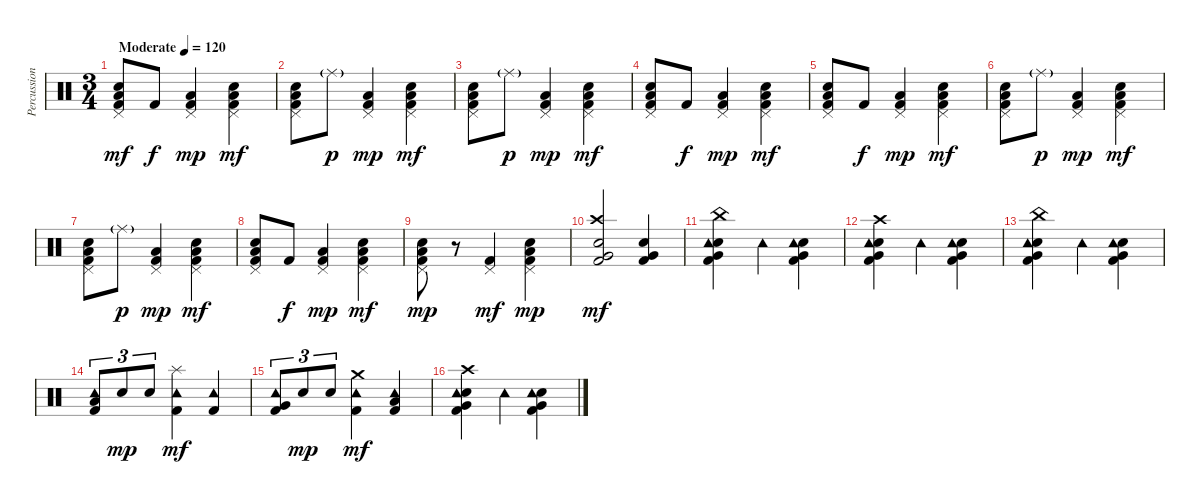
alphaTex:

\track ("Percussion" "Percussion") {instrument percussion}
\staff {score}
\articulation defaults
\ts (3 4)
\tempo (120 "Moderate")
\clef neutral
\ks c
("Snare (hit) 2" "Kick (hit) 2" "Pedal Hi-Hat (hit)" "Low Tom (hit)").8{dy mf} "Kick (hit) 2".8{dy f} ("Kick (hit) 2" "Pedal Hi-Hat (hit)" "Low Floor Tom (hit)").4{dy mp} ("Snare (hit) 2" "Kick (hit) 2" "Pedal Hi-Hat (hit)" "Low Tom (hit)").4{dy mf} |
("Snare (hit) 2" "Kick (hit) 2" "Pedal Hi-Hat (hit)" "Low Tom (hit)").8 "Ride (middle)"{g}.8{dy p} ("Kick (hit) 2" "Pedal Hi-Hat (hit)" "Low Floor Tom (hit)").4{dy mp} ("Snare (hit) 2" "Kick (hit) 2" "Pedal Hi-Hat (hit)" "Low Tom (hit)").4{dy mf} |
("Snare (hit) 2" "Kick (hit) 2" "Pedal Hi-Hat (hit)" "Low Tom (hit)").8 "Ride (middle)"{g}.8{dy p} ("Kick (hit) 2" "Pedal Hi-Hat (hit)" "Low Floor Tom (hit)").4{dy mp} ("Snare (hit) 2" "Kick (hit) 2" "Pedal Hi-Hat (hit)" "Low Tom (hit)").4{dy mf} |
("Snare (hit) 2" "Kick (hit) 2" "Pedal Hi-Hat (hit)" "Low Tom (hit)").8 "Kick (hit) 2".8{dy f} ("Kick (hit) 2" "Pedal Hi-Hat (hit)" "Low Floor Tom (hit)").4{dy mp} ("Snare (hit) 2" "Kick (hit) 2" "Pedal Hi-Hat (hit)" "Low Tom (hit)").4{dy mf} |
("Snare (hit) 2" "Kick (hit) 2" "Pedal Hi-Hat (hit)" "Low Tom (hit)").8 "Kick (hit) 2".8{dy f} ("Kick (hit) 2" "Pedal Hi-Hat (hit)" "Low Floor Tom (hit)").4{dy mp} ("Snare (hit) 2" "Kick (hit) 2" "Pedal Hi-Hat (hit)" "Low Tom (hit)").4{dy mf} |
("Snare (hit) 2" "Kick (hit) 2" "Pedal Hi-Hat (hit)" "Low Tom (hit)").8 "Ride (middle)"{g}.8{dy p} ("Kick (hit) 2" "Pedal Hi-Hat (hit)" "Low Floor Tom (hit)").4{dy mp} ("Snare (hit) 2" "Kick (hit) 2" "Pedal Hi-Hat (hit)" "Low Tom (hit)").4{dy mf} |
("Snare (hit) 2" "Kick (hit) 2" "Pedal Hi-Hat (hit)" "Low Tom (hit)").8 "Ride (middle)"{g}.8{dy p} ("Kick (hit) 2" "Pedal Hi-Hat (hit)" "Low Floor Tom (hit)").4{dy mp} ("Snare (hit) 2" "Kick (hit) 2" "Pedal Hi-Hat (hit)" "Low Tom (hit)").4{dy mf} |
("Snare (hit) 2" "Kick (hit) 2" "Pedal Hi-Hat (hit)" "Low Tom (hit)").8 "Kick (hit) 2".8{dy f} ("Kick (hit) 2" "Pedal Hi-Hat (hit)" "Low Floor Tom (hit)").4{dy mp} ("Snare (hit) 2" "Kick (hit) 2" "Pedal Hi-Hat (hit)" "Low Tom (hit)").4{dy mf} |
("Snare (hit) 2" "Kick (hit) 2" "Pedal Hi-Hat (hit)" "Low Tom (hit)").8{dy mp} r.8 ("Kick (hit) 2" "Pedal Hi-Hat (hit)").4{dy mf} ("Snare (hit) 2" "Kick (hit) 2" "Pedal Hi-Hat (hit)" "Low Tom (hit)").4{dy mp} |
("Snare (hit) 2" "Kick (hit) 2" "Crash high (hit)" "Very Low Tom (hit)").2{dy mf} ("Snare (hit) 2" "Kick (hit) 2" "Very Low Tom (hit)").4 |
("Snare (hit) 2" "Kick (hit) 2" "China (hit)" "Tambourine (hit)" "Very Low Tom (hit)").4 "Tambourine (hit)".4 ("Snare (hit) 2" "Kick (hit) 2" "Tambourine (hit)" "Very Low Tom (hit)").4 |
("Snare (hit) 2" "Kick (hit) 2" "Crash high (hit)" "Tambourine (hit)" "Very Low Tom (hit)").4 "Tambourine (hit)".4 ("Snare (hit) 2" "Kick (hit) 2" "Tambourine (hit)" "Very Low Tom (hit)").4 |
("Snare (hit) 2" "Kick (hit) 2" "China (hit)" "Tambourine (hit)" "Very Low Tom (hit)").4 "Tambourine (hit)".4 ("Snare (hit) 2" "Kick (hit) 2" "Tambourine (hit)" "Very Low Tom (hit)").4 |
("Kick (hit) 2" "Tambourine (hit)" "Low Floor Tom (hit)").8{tu (3 2)} "Snare (hit) 2".8{tu (3 2) dy mp} "Snare (hit) 2".8{tu (3 2)} ("Kick (hit) 2" "Splash (hit)" "Tambourine (hit)").4{dy mf} ("Kick (hit) 2" "Tambourine (hit)").4 |
("Kick (hit) 2" "Tambourine (hit)" "Very Low Tom (hit)").8{tu (3 2)} "Snare (hit) 2".8{tu (3 2) dy mp} "Snare (hit) 2".8{tu (3 2)} ("Kick (hit) 2" "Crash medium (hit)" "Tambourine (hit)").4{dy mf} ("Kick (hit) 2" "Tambourine (hit)" "Low Tom (hit)").4 |
("Snare (hit) 2" "Kick (hit) 2" "Crash high (hit)" "Tambourine (hit)" "Very Low Tom (hit)").4 "Tambourine (hit)".4 ("Snare (hit) 2" "Kick (hit) 2" "Tambourine (hit)" "Very Low Tom (hit)").4
